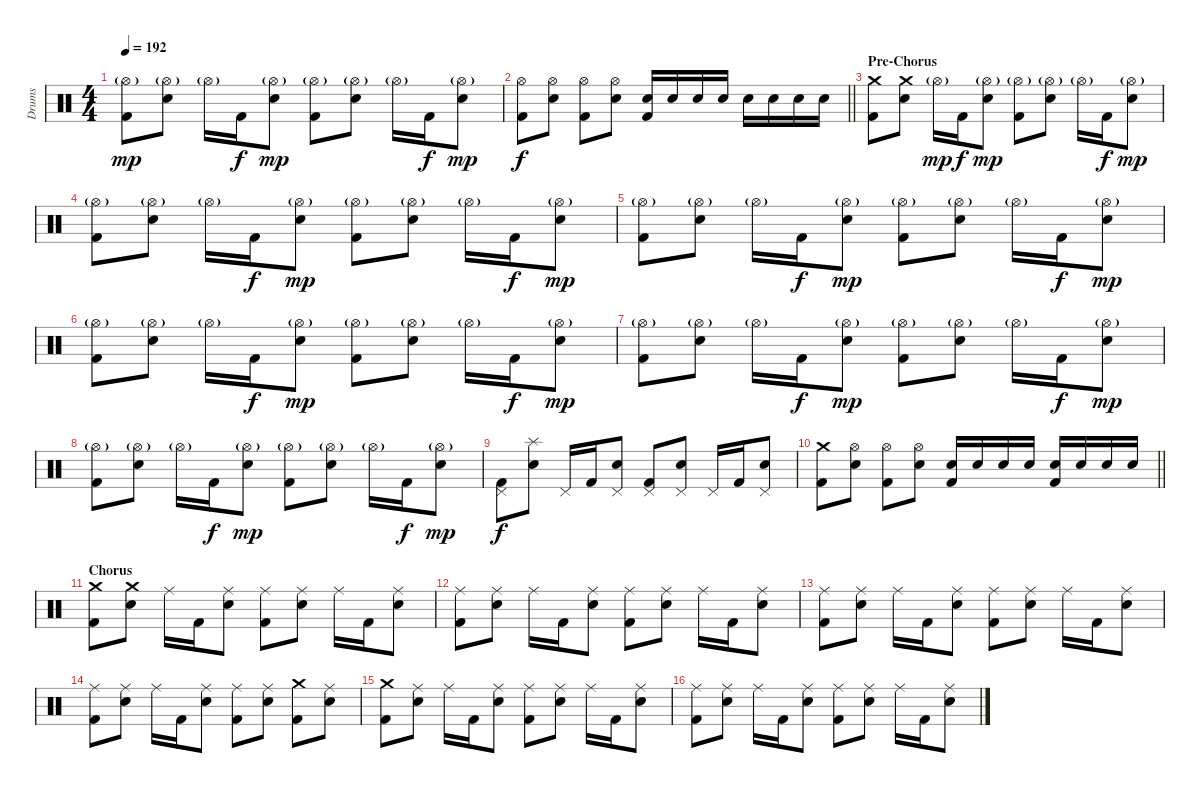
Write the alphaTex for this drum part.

\track ("Drums" "Drums") {instrument percussion}
\staff {score}
\articulation defaults
\ts (4 4)
\tempo 192
\clef neutral
\ks c
("Hi-Hat (open)"{g} "Kick (hit) 2").8{dy mp} ("Hi-Hat (open)"{g} "Electric Snare (hit)").8 "Hi-Hat (open)"{g}.16 "Kick (hit) 2".16{dy f} ("Hi-Hat (open)"{g} "Electric Snare (hit)").8{dy mp} ("Hi-Hat (open)"{g} "Kick (hit) 2").8 ("Hi-Hat (open)"{g} "Electric Snare (hit)").8 "Hi-Hat (open)"{g}.16 "Kick (hit) 2".16{dy f} ("Hi-Hat (open)"{g} "Electric Snare (hit)").8{dy mp} |
\barLineRight lightlight
("Hi-Hat (open)" "Kick (hit) 2").8{dy f} ("Hi-Hat (open)" "Electric Snare (hit)").8 ("Hi-Hat (open)" "Kick (hit) 2").8 ("Hi-Hat (open)" "Electric Snare (hit)").8 ("Electric Snare (hit)" "Kick (hit) 2").16 "Electric Snare (hit)".16 "Electric Snare (hit)".16 "Electric Snare (hit)".16 "Electric Snare (hit)".16 "Electric Snare (hit)".16 "Electric Snare (hit)".16 "Electric Snare (hit)".16 |
\section ("" "Pre-Chorus")
("Crash medium (hit)" "Kick (hit) 2").8 ("Crash medium (hit)" "Electric Snare (hit)").8 "Hi-Hat (open)"{g}.16{dy mp} "Kick (hit) 2".16{dy f} ("Hi-Hat (open)"{g} "Electric Snare (hit)").8{dy mp} ("Hi-Hat (open)"{g} "Kick (hit) 2").8 ("Hi-Hat (open)"{g} "Electric Snare (hit)").8 "Hi-Hat (open)"{g}.16 "Kick (hit) 2".16{dy f} ("Hi-Hat (open)"{g} "Electric Snare (hit)").8{dy mp} |
("Hi-Hat (open)"{g} "Kick (hit) 2").8 ("Hi-Hat (open)"{g} "Electric Snare (hit)").8 "Hi-Hat (open)"{g}.16 "Kick (hit) 2".16{dy f} ("Hi-Hat (open)"{g} "Electric Snare (hit)").8{dy mp} ("Hi-Hat (open)"{g} "Kick (hit) 2").8 ("Hi-Hat (open)"{g} "Electric Snare (hit)").8 "Hi-Hat (open)"{g}.16 "Kick (hit) 2".16{dy f} ("Hi-Hat (open)"{g} "Electric Snare (hit)").8{dy mp} |
("Hi-Hat (open)"{g} "Kick (hit) 2").8 ("Hi-Hat (open)"{g} "Electric Snare (hit)").8 "Hi-Hat (open)"{g}.16 "Kick (hit) 2".16{dy f} ("Hi-Hat (open)"{g} "Electric Snare (hit)").8{dy mp} ("Hi-Hat (open)"{g} "Kick (hit) 2").8 ("Hi-Hat (open)"{g} "Electric Snare (hit)").8 "Hi-Hat (open)"{g}.16 "Kick (hit) 2".16{dy f} ("Hi-Hat (open)"{g} "Electric Snare (hit)").8{dy mp} |
("Hi-Hat (open)"{g} "Kick (hit) 2").8 ("Hi-Hat (open)"{g} "Electric Snare (hit)").8 "Hi-Hat (open)"{g}.16 "Kick (hit) 2".16{dy f} ("Hi-Hat (open)"{g} "Electric Snare (hit)").8{dy mp} ("Hi-Hat (open)"{g} "Kick (hit) 2").8 ("Hi-Hat (open)"{g} "Electric Snare (hit)").8 "Hi-Hat (open)"{g}.16 "Kick (hit) 2".16{dy f} ("Hi-Hat (open)"{g} "Electric Snare (hit)").8{dy mp} |
("Hi-Hat (open)"{g} "Kick (hit) 2").8 ("Hi-Hat (open)"{g} "Electric Snare (hit)").8 "Hi-Hat (open)"{g}.16 "Kick (hit) 2".16{dy f} ("Hi-Hat (open)"{g} "Electric Snare (hit)").8{dy mp} ("Hi-Hat (open)"{g} "Kick (hit) 2").8 ("Hi-Hat (open)"{g} "Electric Snare (hit)").8 "Hi-Hat (open)"{g}.16 "Kick (hit) 2".16{dy f} ("Hi-Hat (open)"{g} "Electric Snare (hit)").8{dy mp} |
("Hi-Hat (open)"{g} "Kick (hit) 2").8 ("Hi-Hat (open)"{g} "Electric Snare (hit)").8 "Hi-Hat (open)"{g}.16 "Kick (hit) 2".16{dy f} ("Hi-Hat (open)"{g} "Electric Snare (hit)").8{dy mp} ("Hi-Hat (open)"{g} "Kick (hit) 2").8 ("Hi-Hat (open)"{g} "Electric Snare (hit)").8 "Hi-Hat (open)"{g}.16 "Kick (hit) 2".16{dy f} ("Hi-Hat (open)"{g} "Electric Snare (hit)").8{dy mp} |
("Pedal Hi-Hat (hit)" "Kick (hit) 2").8{dy f} ("Splash (hit)" "Electric Snare (hit)").8 "Pedal Hi-Hat (hit)".16 "Kick (hit) 2".16 ("Pedal Hi-Hat (hit)" "Electric Snare (hit)").8 ("Pedal Hi-Hat (hit)" "Kick (hit) 2").8 ("Pedal Hi-Hat (hit)" "Electric Snare (hit)").8 "Pedal Hi-Hat (hit)".16 "Kick (hit) 2".16 ("Pedal Hi-Hat (hit)" "Electric Snare (hit)").8 |
\barLineRight lightlight
("Crash medium (hit)" "Kick (hit) 2").8 ("Hi-Hat (open)" "Electric Snare (hit)").8 ("Hi-Hat (open)" "Kick (hit) 2").8 ("Hi-Hat (open)" "Electric Snare (hit)").8 ("Electric Snare (hit)" "Kick (hit) 2").16 "Electric Snare (hit)".16 "Electric Snare (hit)".16 "Electric Snare (hit)".16 ("Electric Snare (hit)" "Kick (hit) 2").16 "Electric Snare (hit)".16 "Electric Snare (hit)".16 "Electric Snare (hit)".16 |
\section ("" "Chorus")
("Crash medium (hit)" "Kick (hit) 2").8 ("Crash medium (hit)" "Electric Snare (hit)").8 "Ride (middle)".16 "Kick (hit) 2".16 ("Ride (middle)" "Electric Snare (hit)").8 ("Ride (middle)" "Kick (hit) 2").8 ("Ride (middle)" "Electric Snare (hit)").8 "Ride (middle)".16 "Kick (hit) 2".16 ("Ride (middle)" "Electric Snare (hit)").8 |
("Ride (middle)" "Kick (hit) 2").8 ("Ride (middle)" "Electric Snare (hit)").8 "Ride (middle)".16 "Kick (hit) 2".16 ("Ride (middle)" "Electric Snare (hit)").8 ("Ride (middle)" "Kick (hit) 2").8 ("Ride (middle)" "Electric Snare (hit)").8 "Ride (middle)".16 "Kick (hit) 2".16 ("Ride (middle)" "Electric Snare (hit)").8 |
("Ride (middle)" "Kick (hit) 2").8 ("Ride (middle)" "Electric Snare (hit)").8 "Ride (middle)".16 "Kick (hit) 2".16 ("Ride (middle)" "Electric Snare (hit)").8 ("Ride (middle)" "Kick (hit) 2").8 ("Ride (middle)" "Electric Snare (hit)").8 "Ride (middle)".16 "Kick (hit) 2".16 ("Ride (middle)" "Electric Snare (hit)").8 |
("Ride (middle)" "Kick (hit) 2").8 ("Ride (middle)" "Electric Snare (hit)").8 "Ride (middle)".16 "Kick (hit) 2".16 ("Ride (middle)" "Electric Snare (hit)").8 ("Ride (middle)" "Kick (hit) 2").8 ("Ride (middle)" "Electric Snare (hit)").8 ("Crash medium (hit)" "Kick (hit) 2").8 ("Ride (middle)" "Electric Snare (hit)").8 |
("Crash medium (hit)" "Kick (hit) 2").8 ("Ride (middle)" "Electric Snare (hit)").8 "Ride (middle)".16 "Kick (hit) 2".16 ("Ride (middle)" "Electric Snare (hit)").8 ("Ride (middle)" "Kick (hit) 2").8 ("Ride (middle)" "Electric Snare (hit)").8 "Ride (middle)".16 "Kick (hit) 2".16 ("Ride (middle)" "Electric Snare (hit)").8 |
("Ride (middle)" "Kick (hit) 2").8 ("Ride (middle)" "Electric Snare (hit)").8 "Ride (middle)".16 "Kick (hit) 2".16 ("Ride (middle)" "Electric Snare (hit)").8 ("Ride (middle)" "Kick (hit) 2").8 ("Ride (middle)" "Electric Snare (hit)").8 "Ride (middle)".16 "Kick (hit) 2".16 ("Ride (middle)" "Electric Snare (hit)").8
